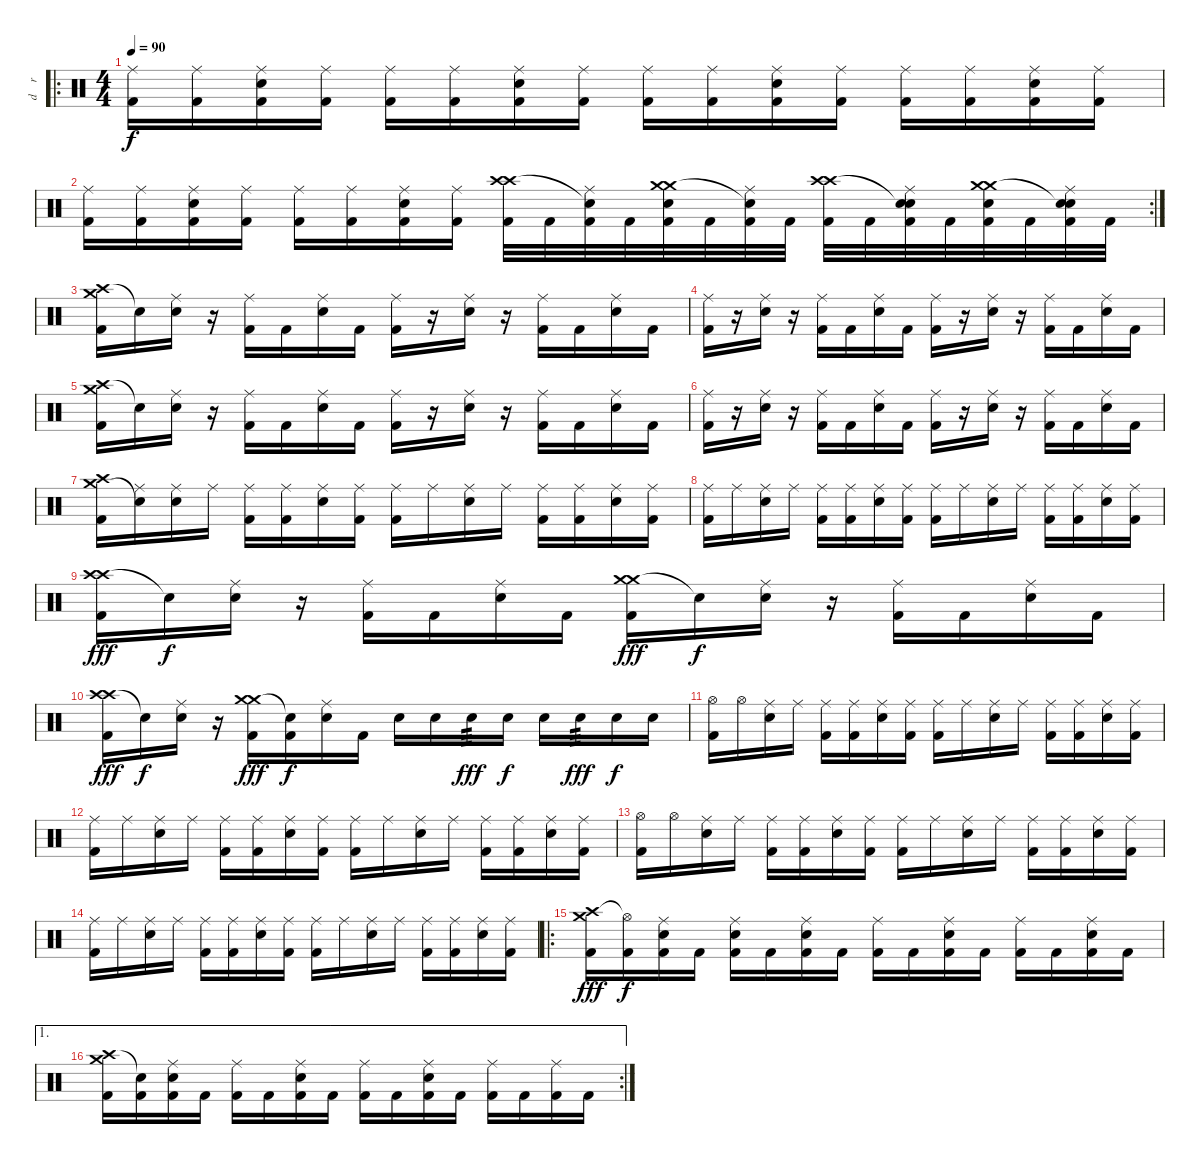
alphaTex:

\track ("d    r     u    m    s" "d    r    ") {instrument percussion}
\staff {score}
\articulation defaults
\ro
\ts (4 4)
\tempo 90
\clef neutral
\ks c
("Ride (middle)" "Kick (hit) 2").16{dy f} ("Ride (middle)" "Kick (hit) 2").16 ("Ride (middle)" "Electric Snare (hit)" "Kick (hit) 2").16 ("Ride (middle)" "Kick (hit) 2").16 ("Ride (middle)" "Kick (hit) 2").16 ("Ride (middle)" "Kick (hit) 2").16 ("Ride (middle)" "Electric Snare (hit)" "Kick (hit) 2").16 ("Ride (middle)" "Kick (hit) 2").16 ("Ride (middle)" "Kick (hit) 2").16 ("Ride (middle)" "Kick (hit) 2").16 ("Ride (middle)" "Electric Snare (hit)" "Kick (hit) 2").16 ("Ride (middle)" "Kick (hit) 2").16 ("Ride (middle)" "Kick (hit) 2").16 ("Ride (middle)" "Kick (hit) 2").16 ("Ride (middle)" "Electric Snare (hit)" "Kick (hit) 2").16 ("Ride (middle)" "Kick (hit) 2").16 |
\rc 2
("Ride (middle)" "Kick (hit) 2").16 ("Ride (middle)" "Kick (hit) 2").16 ("Ride (middle)" "Electric Snare (hit)" "Kick (hit) 2").16 ("Ride (middle)" "Kick (hit) 2").16 ("Ride (middle)" "Kick (hit) 2").16 ("Ride (middle)" "Kick (hit) 2").16 ("Ride (middle)" "Electric Snare (hit)" "Kick (hit) 2").16 ("Ride (middle)" "Kick (hit) 2").16 ("Crash high (hit)" "Crash high (hit)" "Kick (hit) 2").32 "Kick (hit) 2".32 ("Ride (middle)" "Snare (hit)"{t} "Kick (hit) 2").32 "Kick (hit) 2".32 ("Crash medium (hit)" "Crash medium (hit)" "Electric Snare (hit)" "Kick (hit) 2").32 "Kick (hit) 2".32 ("Ride (middle)" "Snare (hit)"{t} "Kick (hit) 2").32 "Kick (hit) 2".32 ("Crash high (hit)" "Crash high (hit)" "Kick (hit) 2").32 "Kick (hit) 2".32 ("Ride (middle)" "Snare (hit)"{t} "Electric Snare (hit)" "Kick (hit) 2").32 "Kick (hit) 2".32 ("Crash medium (hit)" "Crash medium (hit)" "Electric Snare (hit)" "Kick (hit) 2").32 "Kick (hit) 2".32 ("Ride (middle)" "Snare (hit)"{t} "Electric Snare (hit)" "Kick (hit) 2").32 "Kick (hit) 2".32 |
("Crash high (hit)" "Crash medium (hit)" "Kick (hit) 2").16 "Snare (hit)"{t}.16 ("Ride (middle)" "Electric Snare (hit)").16 r.16 ("Ride (middle)" "Kick (hit) 2").16 "Kick (hit) 2".16 ("Ride (middle)" "Electric Snare (hit)").16 "Kick (hit) 2".16 ("Ride (middle)" "Kick (hit) 2").16 r.16 ("Ride (middle)" "Electric Snare (hit)").16 r.16 ("Ride (middle)" "Kick (hit) 2").16 "Kick (hit) 2".16 ("Ride (middle)" "Electric Snare (hit)").16 "Kick (hit) 2".16 |
("Ride (middle)" "Kick (hit) 2").16 r.16 ("Ride (middle)" "Electric Snare (hit)").16 r.16 ("Ride (middle)" "Kick (hit) 2").16 "Kick (hit) 2".16 ("Ride (middle)" "Electric Snare (hit)").16 "Kick (hit) 2".16 ("Ride (middle)" "Kick (hit) 2").16 r.16 ("Ride (middle)" "Electric Snare (hit)").16 r.16 ("Ride (middle)" "Kick (hit) 2").16 "Kick (hit) 2".16 ("Ride (middle)" "Electric Snare (hit)").16 "Kick (hit) 2".16 |
("Crash high (hit)" "Crash medium (hit)" "Kick (hit) 2").16 "Snare (hit)"{t}.16 ("Ride (middle)" "Electric Snare (hit)").16 r.16 ("Ride (middle)" "Kick (hit) 2").16 "Kick (hit) 2".16 ("Ride (middle)" "Electric Snare (hit)").16 "Kick (hit) 2".16 ("Ride (middle)" "Kick (hit) 2").16 r.16 ("Ride (middle)" "Electric Snare (hit)").16 r.16 ("Ride (middle)" "Kick (hit) 2").16 "Kick (hit) 2".16 ("Ride (middle)" "Electric Snare (hit)").16 "Kick (hit) 2".16 |
("Ride (middle)" "Kick (hit) 2").16 r.16 ("Ride (middle)" "Electric Snare (hit)").16 r.16 ("Ride (middle)" "Kick (hit) 2").16 "Kick (hit) 2".16 ("Ride (middle)" "Electric Snare (hit)").16 "Kick (hit) 2".16 ("Ride (middle)" "Kick (hit) 2").16 r.16 ("Ride (middle)" "Electric Snare (hit)").16 r.16 ("Ride (middle)" "Kick (hit) 2").16 "Kick (hit) 2".16 ("Ride (middle)" "Electric Snare (hit)").16 "Kick (hit) 2".16 |
("Crash high (hit)" "Crash medium (hit)" "Kick (hit) 2").16 ("Ride (middle)" "Snare (hit)"{t}).16 ("Ride (middle)" "Electric Snare (hit)").16 "Ride (middle)".16 ("Ride (middle)" "Kick (hit) 2").16 ("Ride (middle)" "Kick (hit) 2").16 ("Ride (middle)" "Electric Snare (hit)").16 ("Ride (middle)" "Kick (hit) 2").16 ("Ride (middle)" "Kick (hit) 2").16 "Ride (middle)".16 ("Ride (middle)" "Electric Snare (hit)").16 "Ride (middle)".16 ("Ride (middle)" "Kick (hit) 2").16 ("Ride (middle)" "Kick (hit) 2").16 ("Ride (middle)" "Electric Snare (hit)").16 ("Ride (middle)" "Kick (hit) 2").16 |
("Ride (middle)" "Kick (hit) 2").16 "Ride (middle)".16 ("Ride (middle)" "Electric Snare (hit)").16 "Ride (middle)".16 ("Ride (middle)" "Kick (hit) 2").16 ("Ride (middle)" "Kick (hit) 2").16 ("Ride (middle)" "Electric Snare (hit)").16 ("Ride (middle)" "Kick (hit) 2").16 ("Ride (middle)" "Kick (hit) 2").16 "Ride (middle)".16 ("Ride (middle)" "Electric Snare (hit)").16 "Ride (middle)".16 ("Ride (middle)" "Kick (hit) 2").16 ("Ride (middle)" "Kick (hit) 2").16 ("Ride (middle)" "Electric Snare (hit)").16 ("Ride (middle)" "Kick (hit) 2").16 |
("Crash high (hit)" "Crash high (hit)" "Kick (hit) 2").16{dy fff} "Snare (hit)"{t}.16{dy f} ("Ride (middle)" "Electric Snare (hit)").16 r.16 ("Ride (middle)" "Kick (hit) 2").16 "Kick (hit) 2".16 ("Ride (middle)" "Electric Snare (hit)").16 "Kick (hit) 2".16 ("Crash medium (hit)" "Crash medium (hit)" "Kick (hit) 2").16{dy fff} "Snare (hit)"{t}.16{dy f} ("Ride (middle)" "Electric Snare (hit)").16 r.16 ("Ride (middle)" "Kick (hit) 2").16 "Kick (hit) 2".16 ("Ride (middle)" "Electric Snare (hit)").16 "Kick (hit) 2".16 |
("Crash high (hit)" "Crash high (hit)" "Kick (hit) 2").16{dy fff} "Snare (hit)"{t}.16{dy f} ("Ride (middle)" "Electric Snare (hit)").16 r.16 ("Crash medium (hit)" "Crash medium (hit)" "Kick (hit) 2").16{dy fff} ("Snare (hit)"{t} "Kick (hit) 2").16{dy f} ("Ride (middle)" "Electric Snare (hit)").16 "Kick (hit) 2".16 "Electric Snare (hit)".16 "Electric Snare (hit)".16 "Electric Snare (hit)".16{tp 3 dy fff} "Electric Snare (hit)".16{dy f} "Electric Snare (hit)".16 "Electric Snare (hit)".16{tp 3 dy fff} "Electric Snare (hit)".16{dy f} "Electric Snare (hit)".16 |
("Hi-Hat (open)" "Kick (hit) 2").16 "Hi-Hat (open)".16 ("Ride (middle)" "Electric Snare (hit)").16 "Ride (middle)".16 ("Ride (middle)" "Kick (hit) 2").16 ("Ride (middle)" "Kick (hit) 2").16 ("Ride (middle)" "Electric Snare (hit)").16 ("Ride (middle)" "Kick (hit) 2").16 ("Ride (middle)" "Kick (hit) 2").16 "Ride (middle)".16 ("Ride (middle)" "Electric Snare (hit)").16 "Ride (middle)".16 ("Ride (middle)" "Kick (hit) 2").16 ("Ride (middle)" "Kick (hit) 2").16 ("Ride (middle)" "Electric Snare (hit)").16 ("Ride (middle)" "Kick (hit) 2").16 |
("Ride (middle)" "Kick (hit) 2").16 "Ride (middle)".16 ("Ride (middle)" "Electric Snare (hit)").16 "Ride (middle)".16 ("Ride (middle)" "Kick (hit) 2").16 ("Ride (middle)" "Kick (hit) 2").16 ("Ride (middle)" "Electric Snare (hit)").16 ("Ride (middle)" "Kick (hit) 2").16 ("Ride (middle)" "Kick (hit) 2").16 "Ride (middle)".16 ("Ride (middle)" "Electric Snare (hit)").16 "Ride (middle)".16 ("Ride (middle)" "Kick (hit) 2").16 ("Ride (middle)" "Kick (hit) 2").16 ("Ride (middle)" "Electric Snare (hit)").16 ("Ride (middle)" "Kick (hit) 2").16 |
("Hi-Hat (open)" "Kick (hit) 2").16 "Hi-Hat (open)".16 ("Ride (middle)" "Electric Snare (hit)").16 "Ride (middle)".16 ("Ride (middle)" "Kick (hit) 2").16 ("Ride (middle)" "Kick (hit) 2").16 ("Ride (middle)" "Electric Snare (hit)").16 ("Ride (middle)" "Kick (hit) 2").16 ("Ride (middle)" "Kick (hit) 2").16 "Ride (middle)".16 ("Ride (middle)" "Electric Snare (hit)").16 "Ride (middle)".16 ("Ride (middle)" "Kick (hit) 2").16 ("Ride (middle)" "Kick (hit) 2").16 ("Ride (middle)" "Electric Snare (hit)").16 ("Ride (middle)" "Kick (hit) 2").16 |
("Ride (middle)" "Kick (hit) 2").16 "Ride (middle)".16 ("Ride (middle)" "Electric Snare (hit)").16 "Ride (middle)".16 ("Ride (middle)" "Kick (hit) 2").16 ("Ride (middle)" "Kick (hit) 2").16 ("Ride (middle)" "Electric Snare (hit)").16 ("Ride (middle)" "Kick (hit) 2").16 ("Ride (middle)" "Kick (hit) 2").16 "Ride (middle)".16 ("Ride (middle)" "Electric Snare (hit)").16 "Ride (middle)".16 ("Ride (middle)" "Kick (hit) 2").16 ("Ride (middle)" "Kick (hit) 2").16 ("Ride (middle)" "Electric Snare (hit)").16 ("Ride (middle)" "Kick (hit) 2").16 |
\ro
("Crash high (hit)" "Crash medium (hit)" "Kick (hit) 2").16{dy fff} ("Hi-Hat (open)"{t} "Kick (hit) 2").16{dy f} ("Ride (middle)" "Electric Snare (hit)" "Kick (hit) 2").16 "Kick (hit) 2".16 ("Ride (middle)" "Electric Snare (hit)" "Kick (hit) 2").16 "Kick (hit) 2".16 ("Ride (middle)" "Electric Snare (hit)" "Kick (hit) 2").16 "Kick (hit) 2".16 ("Ride (middle)" "Kick (hit) 2").16 "Kick (hit) 2".16 ("Ride (middle)" "Electric Snare (hit)" "Kick (hit) 2").16 "Kick (hit) 2".16 ("Ride (middle)" "Kick (hit) 2").16 "Kick (hit) 2".16 ("Ride (middle)" "Electric Snare (hit)" "Kick (hit) 2").16 "Kick (hit) 2".16 |
\ae 1
\rc 2
("Crash high (hit)" "Crash medium (hit)" "Kick (hit) 2").16 ("Snare (hit)"{t} "Kick (hit) 2").16 ("Ride (middle)" "Electric Snare (hit)" "Kick (hit) 2").16 "Kick (hit) 2".16 ("Ride (middle)" "Kick (hit) 2").16 "Kick (hit) 2".16 ("Ride (middle)" "Electric Snare (hit)" "Kick (hit) 2").16 "Kick (hit) 2".16 ("Ride (middle)" "Kick (hit) 2").16 "Kick (hit) 2".16 ("Ride (middle)" "Electric Snare (hit)" "Kick (hit) 2").16 "Kick (hit) 2".16 ("Ride (middle)" "Kick (hit) 2").16 "Kick (hit) 2".16 ("Ride (middle)" "Kick (hit) 2").16 "Kick (hit) 2".16
